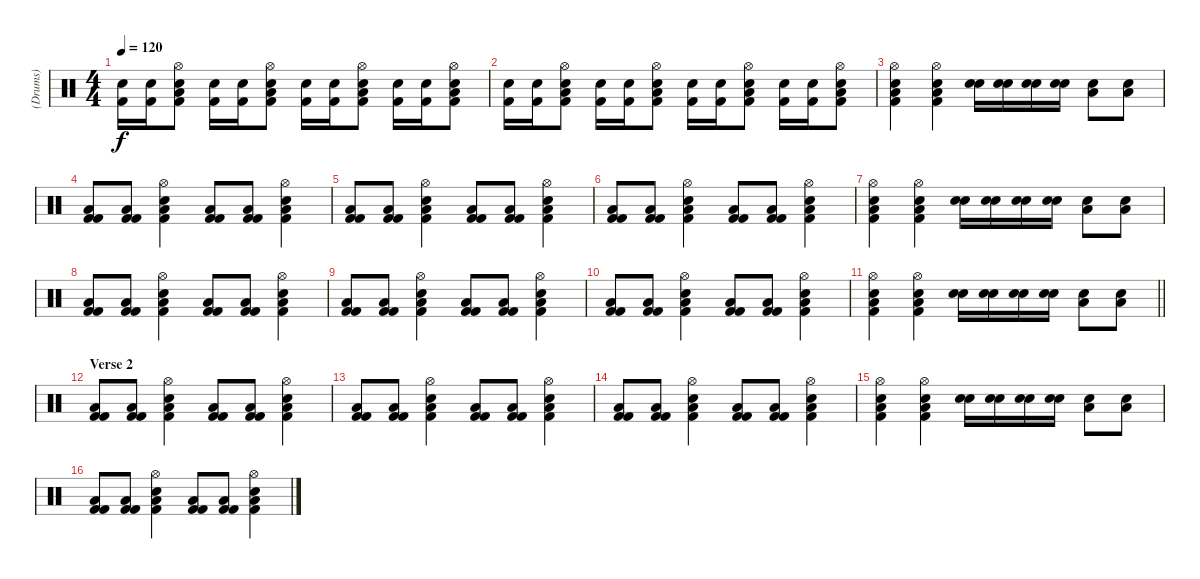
\track ("(Drums)" "(Drums)") {instrument percussion}
\staff {score}
\articulation defaults
\ts (4 4)
\tempo 120
\clef neutral
\ks c
("Kick (hit) 2" "Electric Snare (hit)").16{dy f} ("Kick (hit) 2" "Electric Snare (hit)").16 ("Kick (hit) 2" "Electric Snare (hit)" "Low Floor Tom (hit)" "Hi-Hat (open)").8 ("Kick (hit) 2" "Electric Snare (hit)").16 ("Kick (hit) 2" "Electric Snare (hit)").16 ("Kick (hit) 2" "Electric Snare (hit)" "Low Floor Tom (hit)" "Hi-Hat (open)").8 ("Kick (hit) 2" "Electric Snare (hit)").16 ("Kick (hit) 2" "Electric Snare (hit)").16 ("Kick (hit) 2" "Electric Snare (hit)" "Low Floor Tom (hit)" "Hi-Hat (open)").8 ("Kick (hit) 2" "Electric Snare (hit)").16 ("Kick (hit) 2" "Electric Snare (hit)").16 ("Kick (hit) 2" "Electric Snare (hit)" "Low Floor Tom (hit)" "Hi-Hat (open)").8 |
("Kick (hit) 2" "Electric Snare (hit)").16 ("Kick (hit) 2" "Electric Snare (hit)").16 ("Kick (hit) 2" "Electric Snare (hit)" "Low Floor Tom (hit)" "Hi-Hat (open)").8 ("Kick (hit) 2" "Electric Snare (hit)").16 ("Kick (hit) 2" "Electric Snare (hit)").16 ("Kick (hit) 2" "Electric Snare (hit)" "Low Floor Tom (hit)" "Hi-Hat (open)").8 ("Kick (hit) 2" "Electric Snare (hit)").16 ("Kick (hit) 2" "Electric Snare (hit)").16 ("Kick (hit) 2" "Electric Snare (hit)" "Low Floor Tom (hit)" "Hi-Hat (open)").8 ("Kick (hit) 2" "Electric Snare (hit)").16 ("Kick (hit) 2" "Electric Snare (hit)").16 ("Kick (hit) 2" "Electric Snare (hit)" "Low Floor Tom (hit)" "Hi-Hat (open)").8 |
("Kick (hit) 2" "Electric Snare (hit)" "Low Floor Tom (hit)" "Hi-Hat (open)").4 ("Kick (hit) 2" "Electric Snare (hit)" "Low Floor Tom (hit)" "Hi-Hat (open)").4 ("Electric Snare (hit)" "Electric Snare (hit)").16 ("Electric Snare (hit)" "Electric Snare (hit)").16 ("Electric Snare (hit)" "Electric Snare (hit)").16 ("Electric Snare (hit)" "Electric Snare (hit)").16 ("Electric Snare (hit)" "Low Floor Tom (hit)").8 ("Electric Snare (hit)" "Low Floor Tom (hit)").8 |
("Kick (hit) 2" "Kick (hit) 2" "Low Floor Tom (hit)").8 ("Kick (hit) 2" "Kick (hit) 2" "Low Floor Tom (hit)").8 ("Kick (hit) 2" "Electric Snare (hit)" "Low Floor Tom (hit)" "Hi-Hat (open)").4 ("Kick (hit) 2" "Kick (hit) 2" "Low Floor Tom (hit)").8 ("Kick (hit) 2" "Kick (hit) 2" "Low Floor Tom (hit)").8 ("Kick (hit) 2" "Electric Snare (hit)" "Low Floor Tom (hit)" "Hi-Hat (open)").4 |
("Kick (hit) 2" "Kick (hit) 2" "Low Floor Tom (hit)").8 ("Kick (hit) 2" "Kick (hit) 2" "Low Floor Tom (hit)").8 ("Kick (hit) 2" "Electric Snare (hit)" "Low Floor Tom (hit)" "Hi-Hat (open)").4 ("Kick (hit) 2" "Kick (hit) 2" "Low Floor Tom (hit)").8 ("Kick (hit) 2" "Kick (hit) 2" "Low Floor Tom (hit)").8 ("Kick (hit) 2" "Electric Snare (hit)" "Low Floor Tom (hit)" "Hi-Hat (open)").4 |
("Kick (hit) 2" "Kick (hit) 2" "Low Floor Tom (hit)").8 ("Kick (hit) 2" "Kick (hit) 2" "Low Floor Tom (hit)").8 ("Kick (hit) 2" "Electric Snare (hit)" "Low Floor Tom (hit)" "Hi-Hat (open)").4 ("Kick (hit) 2" "Kick (hit) 2" "Low Floor Tom (hit)").8 ("Kick (hit) 2" "Kick (hit) 2" "Low Floor Tom (hit)").8 ("Kick (hit) 2" "Electric Snare (hit)" "Low Floor Tom (hit)" "Hi-Hat (open)").4 |
("Kick (hit) 2" "Electric Snare (hit)" "Low Floor Tom (hit)" "Hi-Hat (open)").4 ("Kick (hit) 2" "Electric Snare (hit)" "Low Floor Tom (hit)" "Hi-Hat (open)").4 ("Electric Snare (hit)" "Electric Snare (hit)").16 ("Electric Snare (hit)" "Electric Snare (hit)").16 ("Electric Snare (hit)" "Electric Snare (hit)").16 ("Electric Snare (hit)" "Electric Snare (hit)").16 ("Electric Snare (hit)" "Low Floor Tom (hit)").8 ("Electric Snare (hit)" "Low Floor Tom (hit)").8 |
("Kick (hit) 2" "Kick (hit) 2" "Low Floor Tom (hit)").8 ("Kick (hit) 2" "Kick (hit) 2" "Low Floor Tom (hit)").8 ("Kick (hit) 2" "Electric Snare (hit)" "Low Floor Tom (hit)" "Hi-Hat (open)").4 ("Kick (hit) 2" "Kick (hit) 2" "Low Floor Tom (hit)").8 ("Kick (hit) 2" "Kick (hit) 2" "Low Floor Tom (hit)").8 ("Kick (hit) 2" "Electric Snare (hit)" "Low Floor Tom (hit)" "Hi-Hat (open)").4 |
("Kick (hit) 2" "Kick (hit) 2" "Low Floor Tom (hit)").8 ("Kick (hit) 2" "Kick (hit) 2" "Low Floor Tom (hit)").8 ("Kick (hit) 2" "Electric Snare (hit)" "Low Floor Tom (hit)" "Hi-Hat (open)").4 ("Kick (hit) 2" "Kick (hit) 2" "Low Floor Tom (hit)").8 ("Kick (hit) 2" "Kick (hit) 2" "Low Floor Tom (hit)").8 ("Kick (hit) 2" "Electric Snare (hit)" "Low Floor Tom (hit)" "Hi-Hat (open)").4 |
("Kick (hit) 2" "Kick (hit) 2" "Low Floor Tom (hit)").8 ("Kick (hit) 2" "Kick (hit) 2" "Low Floor Tom (hit)").8 ("Kick (hit) 2" "Electric Snare (hit)" "Low Floor Tom (hit)" "Hi-Hat (open)").4 ("Kick (hit) 2" "Kick (hit) 2" "Low Floor Tom (hit)").8 ("Kick (hit) 2" "Kick (hit) 2" "Low Floor Tom (hit)").8 ("Kick (hit) 2" "Electric Snare (hit)" "Low Floor Tom (hit)" "Hi-Hat (open)").4 |
\barLineRight lightlight
("Kick (hit) 2" "Electric Snare (hit)" "Low Floor Tom (hit)" "Hi-Hat (open)").4 ("Kick (hit) 2" "Electric Snare (hit)" "Low Floor Tom (hit)" "Hi-Hat (open)").4 ("Electric Snare (hit)" "Electric Snare (hit)").16 ("Electric Snare (hit)" "Electric Snare (hit)").16 ("Electric Snare (hit)" "Electric Snare (hit)").16 ("Electric Snare (hit)" "Electric Snare (hit)").16 ("Electric Snare (hit)" "Low Floor Tom (hit)").8 ("Electric Snare (hit)" "Low Floor Tom (hit)").8 |
\section ("" "Verse 2")
("Kick (hit) 2" "Kick (hit) 2" "Low Floor Tom (hit)").8 ("Kick (hit) 2" "Kick (hit) 2" "Low Floor Tom (hit)").8 ("Kick (hit) 2" "Electric Snare (hit)" "Low Floor Tom (hit)" "Hi-Hat (open)").4 ("Kick (hit) 2" "Kick (hit) 2" "Low Floor Tom (hit)").8 ("Kick (hit) 2" "Kick (hit) 2" "Low Floor Tom (hit)").8 ("Kick (hit) 2" "Electric Snare (hit)" "Low Floor Tom (hit)" "Hi-Hat (open)").4 |
("Kick (hit) 2" "Kick (hit) 2" "Low Floor Tom (hit)").8 ("Kick (hit) 2" "Kick (hit) 2" "Low Floor Tom (hit)").8 ("Kick (hit) 2" "Electric Snare (hit)" "Low Floor Tom (hit)" "Hi-Hat (open)").4 ("Kick (hit) 2" "Kick (hit) 2" "Low Floor Tom (hit)").8 ("Kick (hit) 2" "Kick (hit) 2" "Low Floor Tom (hit)").8 ("Kick (hit) 2" "Electric Snare (hit)" "Low Floor Tom (hit)" "Hi-Hat (open)").4 |
("Kick (hit) 2" "Kick (hit) 2" "Low Floor Tom (hit)").8 ("Kick (hit) 2" "Kick (hit) 2" "Low Floor Tom (hit)").8 ("Kick (hit) 2" "Electric Snare (hit)" "Low Floor Tom (hit)" "Hi-Hat (open)").4 ("Kick (hit) 2" "Kick (hit) 2" "Low Floor Tom (hit)").8 ("Kick (hit) 2" "Kick (hit) 2" "Low Floor Tom (hit)").8 ("Kick (hit) 2" "Electric Snare (hit)" "Low Floor Tom (hit)" "Hi-Hat (open)").4 |
("Kick (hit) 2" "Electric Snare (hit)" "Low Floor Tom (hit)" "Hi-Hat (open)").4 ("Kick (hit) 2" "Electric Snare (hit)" "Low Floor Tom (hit)" "Hi-Hat (open)").4 ("Electric Snare (hit)" "Electric Snare (hit)").16 ("Electric Snare (hit)" "Electric Snare (hit)").16 ("Electric Snare (hit)" "Electric Snare (hit)").16 ("Electric Snare (hit)" "Electric Snare (hit)").16 ("Electric Snare (hit)" "Low Floor Tom (hit)").8 ("Electric Snare (hit)" "Low Floor Tom (hit)").8 |
("Kick (hit) 2" "Kick (hit) 2" "Low Floor Tom (hit)").8 ("Kick (hit) 2" "Kick (hit) 2" "Low Floor Tom (hit)").8 ("Kick (hit) 2" "Electric Snare (hit)" "Low Floor Tom (hit)" "Hi-Hat (open)").4 ("Kick (hit) 2" "Kick (hit) 2" "Low Floor Tom (hit)").8 ("Kick (hit) 2" "Kick (hit) 2" "Low Floor Tom (hit)").8 ("Kick (hit) 2" "Electric Snare (hit)" "Low Floor Tom (hit)" "Hi-Hat (open)").4
